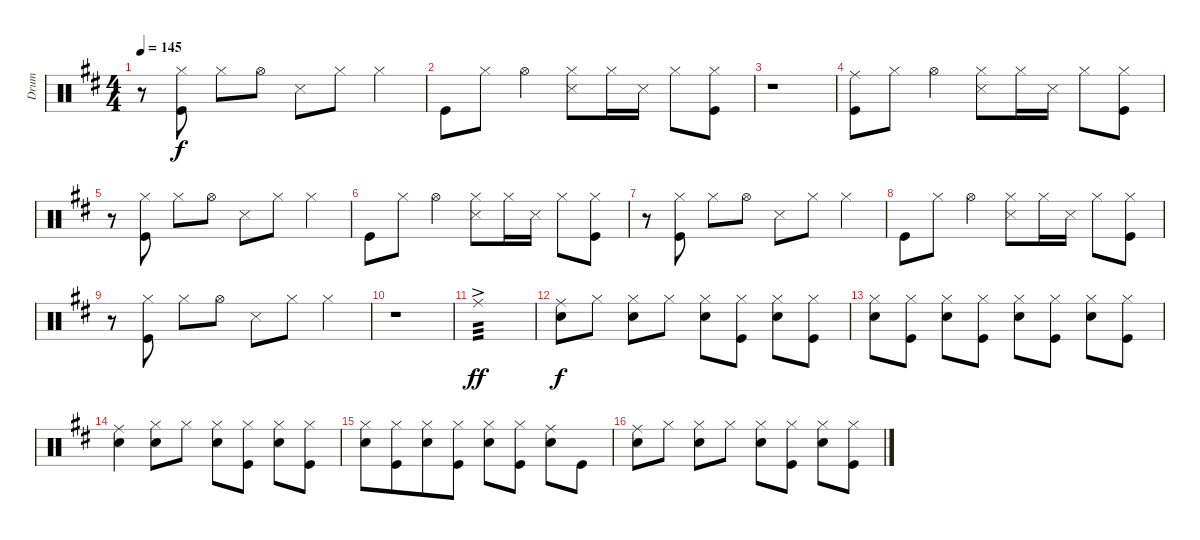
\track ("     Drum" "     Drum") {instrument percussion}
\staff {score}
\articulation defaults
\ts (4 4)
\tempo 145
\clef neutral
\ks d
r.8{dy f} ("Hi-Hat (closed)" "Kick (hit)").8 "Hi-Hat (closed)".8 "Hi-Hat (open)".8 "Snare (side stick) 3".8 "Hi-Hat (closed)".8 "Hi-Hat (closed)".4 |
"Kick (hit)".8 "Hi-Hat (closed)".8 "Hi-Hat (open)".4 ("Hi-Hat (closed)" "Snare (side stick) 3").8 "Hi-Hat (closed)".16 "Snare (side stick) 3".16 "Hi-Hat (closed)".8 ("Hi-Hat (closed)" "Kick (hit)").8 |
r.1 |
("Ride (middle)" "Kick (hit)").8 "Hi-Hat (closed)".8 "Hi-Hat (open)".4 ("Hi-Hat (closed)" "Snare (side stick) 3").8 "Hi-Hat (closed)".16 "Snare (side stick) 3".16 "Hi-Hat (closed)".8 ("Hi-Hat (closed)" "Kick (hit)").8 |
r.8 ("Hi-Hat (closed)" "Kick (hit)").8 "Hi-Hat (closed)".8 "Hi-Hat (open)".8 "Snare (side stick) 3".8 "Hi-Hat (closed)".8 "Hi-Hat (closed)".4 |
"Kick (hit)".8 "Hi-Hat (closed)".8 "Hi-Hat (open)".4 ("Hi-Hat (closed)" "Snare (side stick) 3").8 "Hi-Hat (closed)".16 "Snare (side stick) 3".16 "Hi-Hat (closed)".8 ("Hi-Hat (closed)" "Kick (hit)").8 |
r.8 ("Hi-Hat (closed)" "Kick (hit)").8 "Hi-Hat (closed)".8 "Hi-Hat (open)".8 "Snare (side stick) 3".8 "Hi-Hat (closed)".8 "Hi-Hat (closed)".4 |
"Kick (hit)".8 "Hi-Hat (closed)".8 "Hi-Hat (open)".4 ("Hi-Hat (closed)" "Snare (side stick) 3").8 "Hi-Hat (closed)".16 "Snare (side stick) 3".16 "Hi-Hat (closed)".8 ("Hi-Hat (closed)" "Kick (hit)").8 |
r.8 ("Hi-Hat (closed)" "Kick (hit)").8 "Hi-Hat (closed)".8 "Hi-Hat (open)".8 "Snare (side stick) 3".8 "Hi-Hat (closed)".8 "Hi-Hat (closed)".4 |
r.1 |
"Ride (middle)"{ac}.1{tp 3 dy ff} |
("Ride (middle)" "Snare (hit) 2").8{dy f} "Hi-Hat (closed)".8 ("Hi-Hat (closed)" "Snare (hit) 2").8 "Hi-Hat (closed)".8 ("Hi-Hat (closed)" "Snare (hit) 2").8 ("Hi-Hat (closed)" "Kick (hit)").8 ("Hi-Hat (closed)" "Snare (hit) 2").8 ("Hi-Hat (closed)" "Kick (hit)").8 |
("Hi-Hat (closed)" "Snare (hit) 2").8 ("Hi-Hat (closed)" "Kick (hit)").8 ("Hi-Hat (closed)" "Snare (hit) 2").8 ("Hi-Hat (closed)" "Kick (hit)").8 ("Hi-Hat (closed)" "Snare (hit) 2").8 ("Hi-Hat (closed)" "Kick (hit)").8 ("Hi-Hat (closed)" "Snare (hit) 2").8 ("Hi-Hat (closed)" "Kick (hit)").8 |
("Ride (middle)" "Snare (hit) 2").4 ("Hi-Hat (closed)" "Snare (hit) 2").8 "Hi-Hat (closed)".8 ("Hi-Hat (closed)" "Snare (hit) 2").8 ("Hi-Hat (closed)" "Kick (hit)").8 ("Hi-Hat (closed)" "Snare (hit) 2").8 ("Hi-Hat (closed)" "Kick (hit)").8 |
("Hi-Hat (closed)" "Snare (hit) 2").8 ("Hi-Hat (closed)" "Kick (hit)").8{beam merge} ("Hi-Hat (closed)" "Snare (hit) 2").8 ("Hi-Hat (closed)" "Kick (hit)").8 ("Hi-Hat (closed)" "Snare (hit) 2").8{beam merge} ("Hi-Hat (closed)" "Kick (hit)").8 ("Ride (middle)" "Snare (hit) 2").8 "Kick (hit)".8 |
("Ride (middle)" "Snare (hit) 2").8 "Hi-Hat (closed)".8 ("Hi-Hat (closed)" "Snare (hit) 2").8 "Hi-Hat (closed)".8 ("Hi-Hat (closed)" "Snare (hit) 2").8 ("Hi-Hat (closed)" "Kick (hit)").8 ("Hi-Hat (closed)" "Snare (hit) 2").8 ("Hi-Hat (closed)" "Kick (hit)").8
